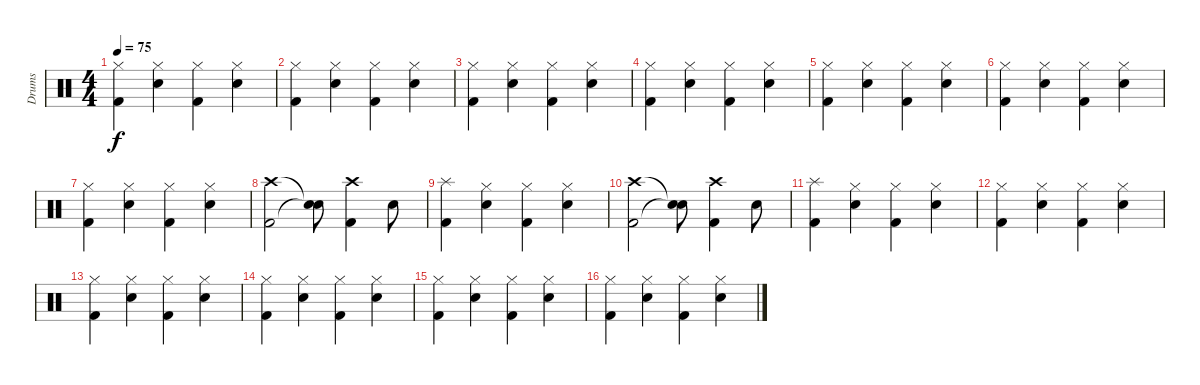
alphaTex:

\track ("Drums" "Drums") {instrument percussion}
\staff {score}
\articulation defaults
\ts (4 4)
\tempo 75
\clef neutral
\ks c
("Hi-Hat (closed)" "Kick (hit) 2").4{dy f} ("Hi-Hat (closed)" "Snare (hit) 2").4 ("Hi-Hat (closed)" "Kick (hit) 2").4 ("Hi-Hat (closed)" "Snare (hit) 2").4 |
("Hi-Hat (closed)" "Kick (hit) 2").4 ("Hi-Hat (closed)" "Snare (hit) 2").4 ("Hi-Hat (closed)" "Kick (hit) 2").4 ("Hi-Hat (closed)" "Snare (hit) 2").4 |
("Hi-Hat (closed)" "Kick (hit) 2").4 ("Hi-Hat (closed)" "Snare (hit) 2").4 ("Hi-Hat (closed)" "Kick (hit) 2").4 ("Hi-Hat (closed)" "Snare (hit) 2").4 |
("Hi-Hat (closed)" "Kick (hit) 2").4 ("Hi-Hat (closed)" "Snare (hit) 2").4 ("Hi-Hat (closed)" "Kick (hit) 2").4 ("Hi-Hat (closed)" "Snare (hit) 2").4 |
("Hi-Hat (closed)" "Kick (hit) 2").4 ("Hi-Hat (closed)" "Snare (hit) 2").4 ("Hi-Hat (closed)" "Kick (hit) 2").4 ("Hi-Hat (closed)" "Snare (hit) 2").4 |
("Hi-Hat (closed)" "Kick (hit) 2").4 ("Hi-Hat (closed)" "Snare (hit) 2").4 ("Hi-Hat (closed)" "Kick (hit) 2").4 ("Hi-Hat (closed)" "Snare (hit) 2").4 |
("Hi-Hat (closed)" "Kick (hit) 2").4 ("Hi-Hat (closed)" "Snare (hit) 2").4 ("Hi-Hat (closed)" "Kick (hit) 2").4 ("Hi-Hat (closed)" "Snare (hit) 2").4 |
("Crash high (hit)" "Kick (hit) 2").2 ("Snare (hit)"{t} "Snare (hit)"{t}).8 ("Crash high (hit)" "Kick (hit) 2").4 "Snare (hit) 2".8 |
("Splash (hit)" "Kick (hit) 2").4 ("Hi-Hat (closed)" "Snare (hit) 2").4 ("Hi-Hat (closed)" "Kick (hit) 2").4 ("Hi-Hat (closed)" "Snare (hit) 2").4 |
("Crash high (hit)" "Kick (hit) 2").2 ("Snare (hit)"{t} "Snare (hit)"{t}).8 ("Crash high (hit)" "Kick (hit) 2").4 "Snare (hit) 2".8 |
("Splash (hit)" "Kick (hit) 2").4 ("Hi-Hat (closed)" "Snare (hit) 2").4 ("Hi-Hat (closed)" "Kick (hit) 2").4 ("Hi-Hat (closed)" "Snare (hit) 2").4 |
("Hi-Hat (closed)" "Kick (hit) 2").4 ("Hi-Hat (closed)" "Snare (hit) 2").4 ("Hi-Hat (closed)" "Kick (hit) 2").4 ("Hi-Hat (closed)" "Snare (hit) 2").4 |
("Hi-Hat (closed)" "Kick (hit) 2").4 ("Hi-Hat (closed)" "Snare (hit) 2").4 ("Hi-Hat (closed)" "Kick (hit) 2").4 ("Hi-Hat (closed)" "Snare (hit) 2").4 |
("Hi-Hat (closed)" "Kick (hit) 2").4 ("Hi-Hat (closed)" "Snare (hit) 2").4 ("Hi-Hat (closed)" "Kick (hit) 2").4 ("Hi-Hat (closed)" "Snare (hit) 2").4 |
("Hi-Hat (closed)" "Kick (hit) 2").4 ("Hi-Hat (closed)" "Snare (hit) 2").4 ("Hi-Hat (closed)" "Kick (hit) 2").4 ("Hi-Hat (closed)" "Snare (hit) 2").4 |
("Hi-Hat (closed)" "Kick (hit) 2").4 ("Hi-Hat (closed)" "Snare (hit) 2").4 ("Hi-Hat (closed)" "Kick (hit) 2").4 ("Hi-Hat (closed)" "Snare (hit) 2").4
